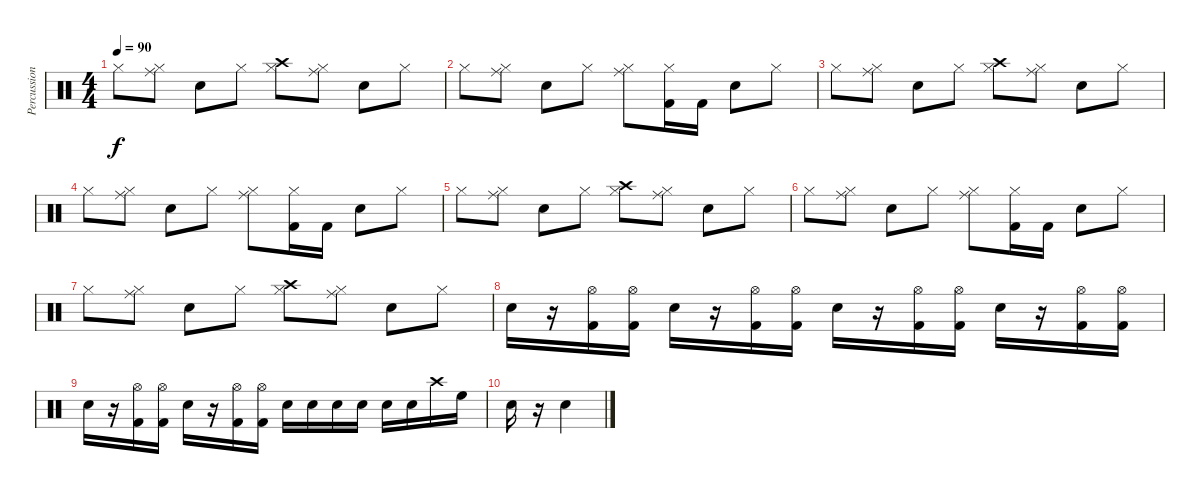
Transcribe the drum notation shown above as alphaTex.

\track ("Percussioni" "Percussion") {instrument percussion}
\staff {score}
\articulation defaults
\ts (4 4)
\tempo 90
\clef neutral
\ks c "Hi-Hat (closed)".8{dy f}
("Ride (middle)" "Hi-Hat (closed)").8 "Snare (hit) 2".8 "Hi-Hat (closed)".8 ("Crash high (hit)" "Hi-Hat (closed)").8 ("Ride (middle)" "Hi-Hat (closed)").8 "Snare (hit) 2".8 "Hi-Hat (closed)".8 |
"Hi-Hat (closed)".8 ("Ride (middle)" "Hi-Hat (closed)").8 "Snare (hit) 2".8 "Hi-Hat (closed)".8 ("Ride (middle)" "Hi-Hat (closed)").8 ("Hi-Hat (closed)" "Kick (hit) 2").16 "Kick (hit) 2".16 "Snare (hit) 2".8 "Hi-Hat (closed)".8 |
"Hi-Hat (closed)".8 ("Ride (middle)" "Hi-Hat (closed)").8 "Snare (hit) 2".8 "Hi-Hat (closed)".8 ("Crash high (hit)" "Hi-Hat (closed)").8 ("Ride (middle)" "Hi-Hat (closed)").8 "Snare (hit) 2".8 "Hi-Hat (closed)".8 |
"Hi-Hat (closed)".8 ("Ride (middle)" "Hi-Hat (closed)").8 "Snare (hit) 2".8 "Hi-Hat (closed)".8 ("Ride (middle)" "Hi-Hat (closed)").8 ("Hi-Hat (closed)" "Kick (hit) 2").16 "Kick (hit) 2".16 "Snare (hit) 2".8 "Hi-Hat (closed)".8 |
"Hi-Hat (closed)".8 ("Ride (middle)" "Hi-Hat (closed)").8 "Snare (hit) 2".8 "Hi-Hat (closed)".8 ("Crash high (hit)" "Hi-Hat (closed)").8 ("Ride (middle)" "Hi-Hat (closed)").8 "Snare (hit) 2".8 "Hi-Hat (closed)".8 |
"Hi-Hat (closed)".8 ("Ride (middle)" "Hi-Hat (closed)").8 "Snare (hit) 2".8 "Hi-Hat (closed)".8 ("Ride (middle)" "Hi-Hat (closed)").8 ("Hi-Hat (closed)" "Kick (hit) 2").16 "Kick (hit) 2".16 "Snare (hit) 2".8 "Hi-Hat (closed)".8 |
"Hi-Hat (closed)".8 ("Ride (middle)" "Hi-Hat (closed)").8 "Snare (hit) 2".8 "Hi-Hat (closed)".8 ("Crash high (hit)" "Hi-Hat (closed)").8 ("Ride (middle)" "Hi-Hat (closed)").8 "Snare (hit) 2".8 "Hi-Hat (closed)".8 |
"Snare (hit) 2".16 r.16 ("Hi-Hat (open)" "Kick (hit) 2").16 ("Hi-Hat (open)" "Kick (hit) 2").16 "Snare (hit) 2".16 r.16 ("Hi-Hat (open)" "Kick (hit) 2").16 ("Hi-Hat (open)" "Kick (hit) 2").16 "Snare (hit) 2".16 r.16 ("Hi-Hat (open)" "Kick (hit) 2").16 ("Hi-Hat (open)" "Kick (hit) 2").16 "Snare (hit) 2".16 r.16 ("Hi-Hat (open)" "Kick (hit) 2").16 ("Hi-Hat (open)" "Kick (hit) 2").16 |
"Snare (hit) 2".16 r.16 ("Hi-Hat (open)" "Kick (hit) 2").16 ("Hi-Hat (open)" "Kick (hit) 2").16 "Snare (hit) 2".16 r.16 ("Hi-Hat (open)" "Kick (hit) 2").16 ("Hi-Hat (open)" "Kick (hit) 2").16 "Snare (hit) 2".16 "Snare (hit) 2".16 "Snare (hit) 2".16 "Snare (hit) 2".16 "Snare (hit) 2".16 "Snare (hit) 2".16 "Crash high (hit)".16 "High Floor Tom (hit)".16 |
"Snare (hit) 2".16 r.16 "Snare (hit) 2".4
